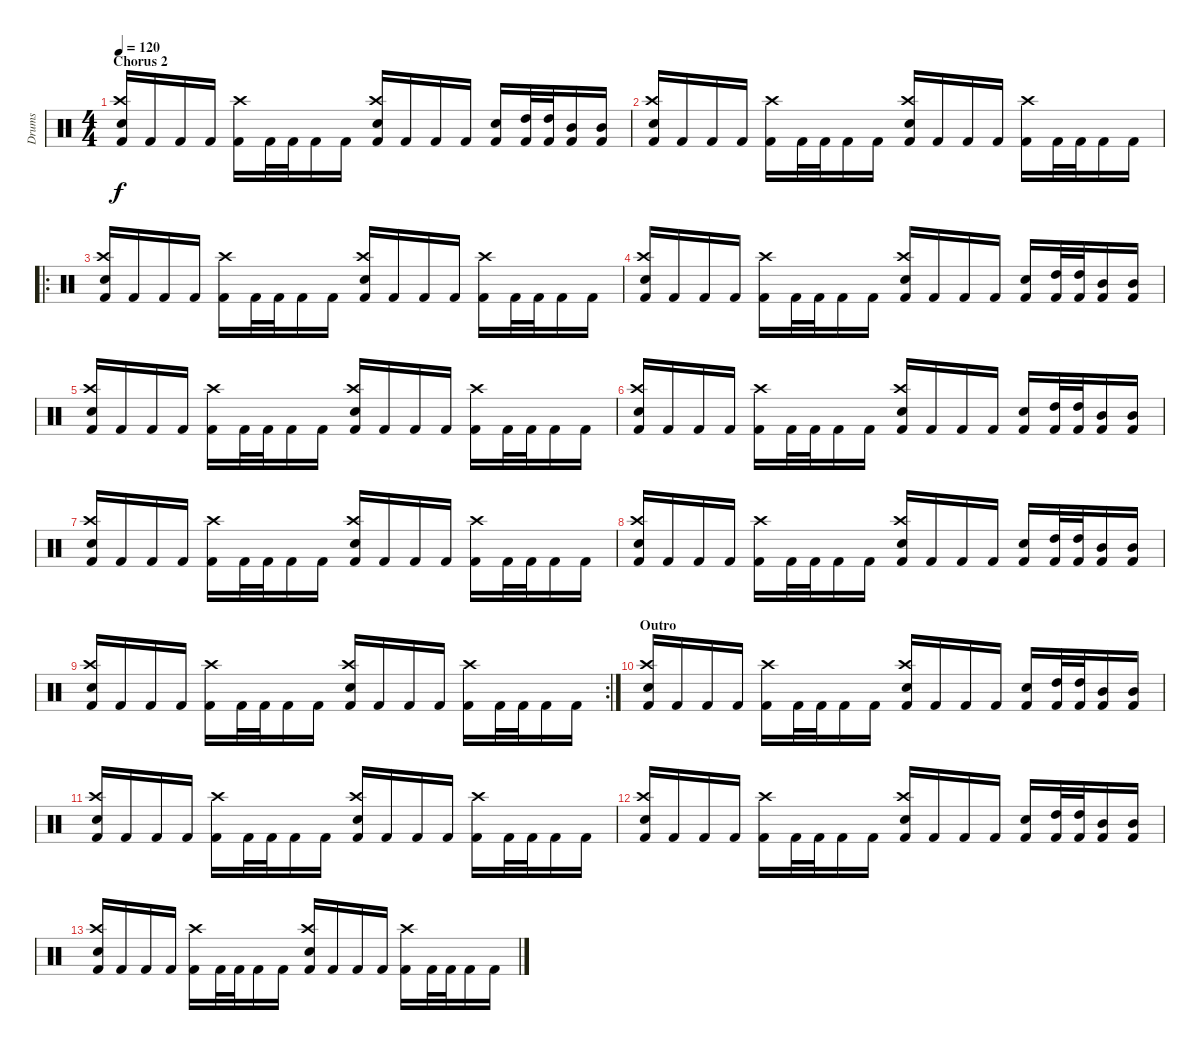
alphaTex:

\track ("Drums" "Drums") {instrument percussion}
\staff {score}
\articulation defaults
\ts (4 4)
\section ("" "Chorus 2")
\tempo 120
\clef neutral
\ks c
("Kick (hit) 2" "Crash high (hit)" "Electric Snare (hit)").16{dy f} "Kick (hit) 2".16 "Kick (hit) 2".16 "Kick (hit) 2".16 ("Kick (hit) 2" "Crash high (hit)").16 "Kick (hit) 2".32 "Kick (hit) 2".32 "Kick (hit) 2".16 "Kick (hit) 2".16 ("Kick (hit) 2" "Crash high (hit)" "Electric Snare (hit)").16 "Kick (hit) 2".16 "Kick (hit) 2".16 "Kick (hit) 2".16 ("Kick (hit) 2" "Electric Snare (hit)").16 ("Kick (hit) 2" "High Tom (hit)").32 ("Kick (hit) 2" "High Tom (hit)").32 ("Kick (hit) 2" "Mid Tom (hit)").16 ("Kick (hit) 2" "Mid Tom (hit)").16 |
("Kick (hit) 2" "Crash high (hit)" "Electric Snare (hit)").16 "Kick (hit) 2".16 "Kick (hit) 2".16 "Kick (hit) 2".16 ("Kick (hit) 2" "Crash high (hit)").16 "Kick (hit) 2".32 "Kick (hit) 2".32 "Kick (hit) 2".16 "Kick (hit) 2".16 ("Kick (hit) 2" "Crash high (hit)" "Electric Snare (hit)").16 "Kick (hit) 2".16 "Kick (hit) 2".16 "Kick (hit) 2".16 ("Kick (hit) 2" "Crash high (hit)").16 "Kick (hit) 2".32 "Kick (hit) 2".32 "Kick (hit) 2".16 "Kick (hit) 2".16 |
\ro
("Kick (hit) 2" "Crash high (hit)" "Electric Snare (hit)").16 "Kick (hit) 2".16 "Kick (hit) 2".16 "Kick (hit) 2".16 ("Kick (hit) 2" "Crash high (hit)").16 "Kick (hit) 2".32 "Kick (hit) 2".32 "Kick (hit) 2".16 "Kick (hit) 2".16 ("Kick (hit) 2" "Crash high (hit)" "Electric Snare (hit)").16 "Kick (hit) 2".16 "Kick (hit) 2".16 "Kick (hit) 2".16 ("Kick (hit) 2" "Crash high (hit)").16 "Kick (hit) 2".32 "Kick (hit) 2".32 "Kick (hit) 2".16 "Kick (hit) 2".16 |
("Kick (hit) 2" "Crash high (hit)" "Electric Snare (hit)").16 "Kick (hit) 2".16 "Kick (hit) 2".16 "Kick (hit) 2".16 ("Kick (hit) 2" "Crash high (hit)").16 "Kick (hit) 2".32 "Kick (hit) 2".32 "Kick (hit) 2".16 "Kick (hit) 2".16 ("Kick (hit) 2" "Crash high (hit)" "Electric Snare (hit)").16 "Kick (hit) 2".16 "Kick (hit) 2".16 "Kick (hit) 2".16 ("Kick (hit) 2" "Electric Snare (hit)").16 ("Kick (hit) 2" "High Tom (hit)").32 ("Kick (hit) 2" "High Tom (hit)").32 ("Kick (hit) 2" "Mid Tom (hit)").16 ("Kick (hit) 2" "Mid Tom (hit)").16 |
("Kick (hit) 2" "Crash high (hit)" "Electric Snare (hit)").16 "Kick (hit) 2".16 "Kick (hit) 2".16 "Kick (hit) 2".16 ("Kick (hit) 2" "Crash high (hit)").16 "Kick (hit) 2".32 "Kick (hit) 2".32 "Kick (hit) 2".16 "Kick (hit) 2".16 ("Kick (hit) 2" "Crash high (hit)" "Electric Snare (hit)").16 "Kick (hit) 2".16 "Kick (hit) 2".16 "Kick (hit) 2".16 ("Kick (hit) 2" "Crash high (hit)").16 "Kick (hit) 2".32 "Kick (hit) 2".32 "Kick (hit) 2".16 "Kick (hit) 2".16 |
("Kick (hit) 2" "Crash high (hit)" "Electric Snare (hit)").16 "Kick (hit) 2".16 "Kick (hit) 2".16 "Kick (hit) 2".16 ("Kick (hit) 2" "Crash high (hit)").16 "Kick (hit) 2".32 "Kick (hit) 2".32 "Kick (hit) 2".16 "Kick (hit) 2".16 ("Kick (hit) 2" "Crash high (hit)" "Electric Snare (hit)").16 "Kick (hit) 2".16 "Kick (hit) 2".16 "Kick (hit) 2".16 ("Kick (hit) 2" "Electric Snare (hit)").16 ("Kick (hit) 2" "High Tom (hit)").32 ("Kick (hit) 2" "High Tom (hit)").32 ("Kick (hit) 2" "Mid Tom (hit)").16 ("Kick (hit) 2" "Mid Tom (hit)").16 |
("Kick (hit) 2" "Crash high (hit)" "Electric Snare (hit)").16 "Kick (hit) 2".16 "Kick (hit) 2".16 "Kick (hit) 2".16 ("Kick (hit) 2" "Crash high (hit)").16 "Kick (hit) 2".32 "Kick (hit) 2".32 "Kick (hit) 2".16 "Kick (hit) 2".16 ("Kick (hit) 2" "Crash high (hit)" "Electric Snare (hit)").16 "Kick (hit) 2".16 "Kick (hit) 2".16 "Kick (hit) 2".16 ("Kick (hit) 2" "Crash high (hit)").16 "Kick (hit) 2".32 "Kick (hit) 2".32 "Kick (hit) 2".16 "Kick (hit) 2".16 |
("Kick (hit) 2" "Crash high (hit)" "Electric Snare (hit)").16 "Kick (hit) 2".16 "Kick (hit) 2".16 "Kick (hit) 2".16 ("Kick (hit) 2" "Crash high (hit)").16 "Kick (hit) 2".32 "Kick (hit) 2".32 "Kick (hit) 2".16 "Kick (hit) 2".16 ("Kick (hit) 2" "Crash high (hit)" "Electric Snare (hit)").16 "Kick (hit) 2".16 "Kick (hit) 2".16 "Kick (hit) 2".16 ("Kick (hit) 2" "Electric Snare (hit)").16 ("Kick (hit) 2" "High Tom (hit)").32 ("Kick (hit) 2" "High Tom (hit)").32 ("Kick (hit) 2" "Mid Tom (hit)").16 ("Kick (hit) 2" "Mid Tom (hit)").16 |
\rc 2
("Kick (hit) 2" "Crash high (hit)" "Electric Snare (hit)").16 "Kick (hit) 2".16 "Kick (hit) 2".16 "Kick (hit) 2".16 ("Kick (hit) 2" "Crash high (hit)").16 "Kick (hit) 2".32 "Kick (hit) 2".32 "Kick (hit) 2".16 "Kick (hit) 2".16 ("Kick (hit) 2" "Crash high (hit)" "Electric Snare (hit)").16 "Kick (hit) 2".16 "Kick (hit) 2".16 "Kick (hit) 2".16 ("Kick (hit) 2" "Crash high (hit)").16 "Kick (hit) 2".32 "Kick (hit) 2".32 "Kick (hit) 2".16 "Kick (hit) 2".16 |
\section ("" "Outro")
("Kick (hit) 2" "Crash high (hit)" "Electric Snare (hit)").16{volume 16} "Kick (hit) 2".16{volume 0} "Kick (hit) 2".16 "Kick (hit) 2".16 ("Kick (hit) 2" "Crash high (hit)").16 "Kick (hit) 2".32 "Kick (hit) 2".32 "Kick (hit) 2".16 "Kick (hit) 2".16 ("Kick (hit) 2" "Crash high (hit)" "Electric Snare (hit)").16 "Kick (hit) 2".16 "Kick (hit) 2".16 "Kick (hit) 2".16 ("Kick (hit) 2" "Electric Snare (hit)").16 ("Kick (hit) 2" "High Tom (hit)").32 ("Kick (hit) 2" "High Tom (hit)").32 ("Kick (hit) 2" "Mid Tom (hit)").16 ("Kick (hit) 2" "Mid Tom (hit)").16 |
("Kick (hit) 2" "Crash high (hit)" "Electric Snare (hit)").16 "Kick (hit) 2".16 "Kick (hit) 2".16 "Kick (hit) 2".16 ("Kick (hit) 2" "Crash high (hit)").16 "Kick (hit) 2".32 "Kick (hit) 2".32 "Kick (hit) 2".16 "Kick (hit) 2".16 ("Kick (hit) 2" "Crash high (hit)" "Electric Snare (hit)").16 "Kick (hit) 2".16 "Kick (hit) 2".16 "Kick (hit) 2".16 ("Kick (hit) 2" "Crash high (hit)").16 "Kick (hit) 2".32 "Kick (hit) 2".32 "Kick (hit) 2".16 "Kick (hit) 2".16 |
("Kick (hit) 2" "Crash high (hit)" "Electric Snare (hit)").16 "Kick (hit) 2".16 "Kick (hit) 2".16 "Kick (hit) 2".16 ("Kick (hit) 2" "Crash high (hit)").16 "Kick (hit) 2".32 "Kick (hit) 2".32 "Kick (hit) 2".16 "Kick (hit) 2".16 ("Kick (hit) 2" "Crash high (hit)" "Electric Snare (hit)").16 "Kick (hit) 2".16 "Kick (hit) 2".16 "Kick (hit) 2".16 ("Kick (hit) 2" "Electric Snare (hit)").16 ("Kick (hit) 2" "High Tom (hit)").32 ("Kick (hit) 2" "High Tom (hit)").32 ("Kick (hit) 2" "Mid Tom (hit)").16 ("Kick (hit) 2" "Mid Tom (hit)").16 |
("Kick (hit) 2" "Crash high (hit)" "Electric Snare (hit)").16 "Kick (hit) 2".16 "Kick (hit) 2".16 "Kick (hit) 2".16 ("Kick (hit) 2" "Crash high (hit)").16 "Kick (hit) 2".32 "Kick (hit) 2".32 "Kick (hit) 2".16 "Kick (hit) 2".16 ("Kick (hit) 2" "Crash high (hit)" "Electric Snare (hit)").16 "Kick (hit) 2".16 "Kick (hit) 2".16 "Kick (hit) 2".16 ("Kick (hit) 2" "Crash high (hit)").16 "Kick (hit) 2".32 "Kick (hit) 2".32 "Kick (hit) 2".16 "Kick (hit) 2".16
